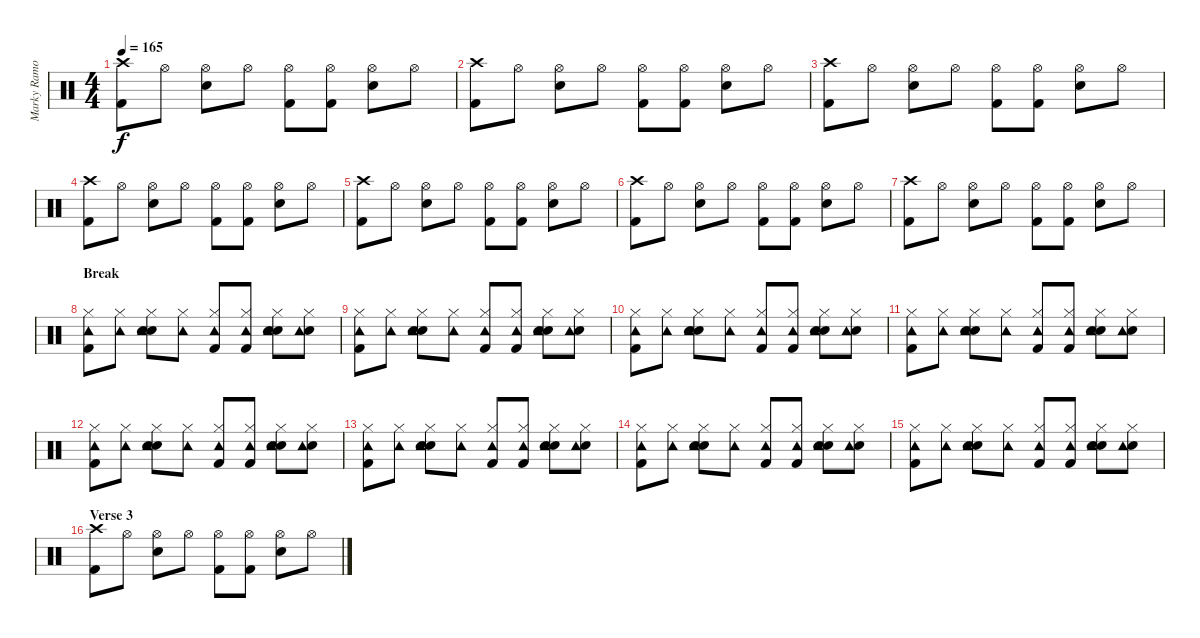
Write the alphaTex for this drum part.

\track ("Marky Ramone" "Marky Ramo") {instrument percussion}
\staff {score}
\articulation defaults
\ts (4 4)
\tempo 165
\clef neutral
\ks c
("Crash high (hit)" "Kick (hit) 2").8{dy f} "Hi-Hat (open)".8 ("Hi-Hat (open)" "Snare (hit) 2").8 "Hi-Hat (open)".8 ("Hi-Hat (open)" "Kick (hit) 2").8 ("Hi-Hat (open)" "Kick (hit) 2").8 ("Hi-Hat (open)" "Snare (hit) 2").8 "Hi-Hat (open)".8 |
("Crash high (hit)" "Kick (hit) 2").8 "Hi-Hat (open)".8 ("Hi-Hat (open)" "Snare (hit) 2").8 "Hi-Hat (open)".8 ("Hi-Hat (open)" "Kick (hit) 2").8 ("Hi-Hat (open)" "Kick (hit) 2").8 ("Hi-Hat (open)" "Snare (hit) 2").8 "Hi-Hat (open)".8 |
("Crash high (hit)" "Kick (hit) 2").8 "Hi-Hat (open)".8 ("Hi-Hat (open)" "Snare (hit) 2").8 "Hi-Hat (open)".8 ("Hi-Hat (open)" "Kick (hit) 2").8 ("Hi-Hat (open)" "Kick (hit) 2").8 ("Hi-Hat (open)" "Snare (hit) 2").8 "Hi-Hat (open)".8 |
("Crash high (hit)" "Kick (hit) 2").8 "Hi-Hat (open)".8 ("Hi-Hat (open)" "Snare (hit) 2").8 "Hi-Hat (open)".8 ("Hi-Hat (open)" "Kick (hit) 2").8 ("Hi-Hat (open)" "Kick (hit) 2").8 ("Hi-Hat (open)" "Snare (hit) 2").8 "Hi-Hat (open)".8 |
("Crash high (hit)" "Kick (hit) 2").8 "Hi-Hat (open)".8 ("Hi-Hat (open)" "Snare (hit) 2").8 "Hi-Hat (open)".8 ("Hi-Hat (open)" "Kick (hit) 2").8 ("Hi-Hat (open)" "Kick (hit) 2").8 ("Hi-Hat (open)" "Snare (hit) 2").8 "Hi-Hat (open)".8 |
("Crash high (hit)" "Kick (hit) 2").8 "Hi-Hat (open)".8 ("Hi-Hat (open)" "Snare (hit) 2").8 "Hi-Hat (open)".8 ("Hi-Hat (open)" "Kick (hit) 2").8 ("Hi-Hat (open)" "Kick (hit) 2").8 ("Hi-Hat (open)" "Snare (hit) 2").8 "Hi-Hat (open)".8 |
("Crash high (hit)" "Kick (hit) 2").8 "Hi-Hat (open)".8 ("Hi-Hat (open)" "Snare (hit) 2").8 "Hi-Hat (open)".8 ("Hi-Hat (open)" "Kick (hit) 2").8 ("Hi-Hat (open)" "Kick (hit) 2").8 ("Hi-Hat (open)" "Snare (hit) 2").8 "Hi-Hat (open)".8 |
\section ("" "Break")
("Hi-Hat (closed)" "Tambourine (hit)" "Kick (hit) 2").8 ("Hi-Hat (closed)" "Tambourine (hit)").8 ("Hi-Hat (closed)" "Hand Clap (hit)" "Tambourine (hit)" "Snare (hit) 2").8 ("Hi-Hat (closed)" "Tambourine (hit)").8 ("Hi-Hat (closed)" "Tambourine (hit)" "Kick (hit) 2").8 ("Hi-Hat (closed)" "Tambourine (hit)" "Kick (hit) 2").8 ("Hi-Hat (closed)" "Hand Clap (hit)" "Tambourine (hit)" "Snare (hit) 2").8 ("Hi-Hat (closed)" "Hand Clap (hit)" "Tambourine (hit)").8 |
("Hi-Hat (closed)" "Tambourine (hit)" "Kick (hit) 2").8 ("Hi-Hat (closed)" "Tambourine (hit)").8 ("Hi-Hat (closed)" "Hand Clap (hit)" "Tambourine (hit)" "Snare (hit) 2").8 ("Hi-Hat (closed)" "Tambourine (hit)").8 ("Hi-Hat (closed)" "Tambourine (hit)" "Kick (hit) 2").8 ("Hi-Hat (closed)" "Tambourine (hit)" "Kick (hit) 2").8 ("Hi-Hat (closed)" "Hand Clap (hit)" "Tambourine (hit)" "Snare (hit) 2").8 ("Hi-Hat (closed)" "Hand Clap (hit)" "Tambourine (hit)").8 |
("Hi-Hat (closed)" "Tambourine (hit)" "Kick (hit) 2").8 ("Hi-Hat (closed)" "Tambourine (hit)").8 ("Hi-Hat (closed)" "Hand Clap (hit)" "Tambourine (hit)" "Snare (hit) 2").8 ("Hi-Hat (closed)" "Tambourine (hit)").8 ("Hi-Hat (closed)" "Tambourine (hit)" "Kick (hit) 2").8 ("Hi-Hat (closed)" "Tambourine (hit)" "Kick (hit) 2").8 ("Hi-Hat (closed)" "Hand Clap (hit)" "Tambourine (hit)" "Snare (hit) 2").8 ("Hi-Hat (closed)" "Hand Clap (hit)" "Tambourine (hit)").8 |
("Hi-Hat (closed)" "Tambourine (hit)" "Kick (hit) 2").8 ("Hi-Hat (closed)" "Tambourine (hit)").8 ("Hi-Hat (closed)" "Hand Clap (hit)" "Tambourine (hit)" "Snare (hit) 2").8 ("Hi-Hat (closed)" "Tambourine (hit)").8 ("Hi-Hat (closed)" "Tambourine (hit)" "Kick (hit) 2").8 ("Hi-Hat (closed)" "Tambourine (hit)" "Kick (hit) 2").8 ("Hi-Hat (closed)" "Hand Clap (hit)" "Tambourine (hit)" "Snare (hit) 2").8 ("Hi-Hat (closed)" "Hand Clap (hit)" "Tambourine (hit)").8 |
("Hi-Hat (closed)" "Tambourine (hit)" "Kick (hit) 2").8 ("Hi-Hat (closed)" "Tambourine (hit)").8 ("Hi-Hat (closed)" "Hand Clap (hit)" "Tambourine (hit)" "Snare (hit) 2").8 ("Hi-Hat (closed)" "Tambourine (hit)").8 ("Hi-Hat (closed)" "Tambourine (hit)" "Kick (hit) 2").8 ("Hi-Hat (closed)" "Tambourine (hit)" "Kick (hit) 2").8 ("Hi-Hat (closed)" "Hand Clap (hit)" "Tambourine (hit)" "Snare (hit) 2").8 ("Hi-Hat (closed)" "Hand Clap (hit)" "Tambourine (hit)").8 |
("Hi-Hat (closed)" "Tambourine (hit)" "Kick (hit) 2").8 ("Hi-Hat (closed)" "Tambourine (hit)").8 ("Hi-Hat (closed)" "Hand Clap (hit)" "Tambourine (hit)" "Snare (hit) 2").8 ("Hi-Hat (closed)" "Tambourine (hit)").8 ("Hi-Hat (closed)" "Tambourine (hit)" "Kick (hit) 2").8 ("Hi-Hat (closed)" "Tambourine (hit)" "Kick (hit) 2").8 ("Hi-Hat (closed)" "Hand Clap (hit)" "Tambourine (hit)" "Snare (hit) 2").8 ("Hi-Hat (closed)" "Hand Clap (hit)" "Tambourine (hit)").8 |
("Hi-Hat (closed)" "Tambourine (hit)" "Kick (hit) 2").8 ("Hi-Hat (closed)" "Tambourine (hit)").8 ("Hi-Hat (closed)" "Hand Clap (hit)" "Tambourine (hit)" "Snare (hit) 2").8 ("Hi-Hat (closed)" "Tambourine (hit)").8 ("Hi-Hat (closed)" "Tambourine (hit)" "Kick (hit) 2").8 ("Hi-Hat (closed)" "Tambourine (hit)" "Kick (hit) 2").8 ("Hi-Hat (closed)" "Hand Clap (hit)" "Tambourine (hit)" "Snare (hit) 2").8 ("Hi-Hat (closed)" "Hand Clap (hit)" "Tambourine (hit)").8 |
("Hi-Hat (closed)" "Tambourine (hit)" "Kick (hit) 2").8 ("Hi-Hat (closed)" "Tambourine (hit)").8 ("Hi-Hat (closed)" "Hand Clap (hit)" "Tambourine (hit)" "Snare (hit) 2").8 ("Hi-Hat (closed)" "Tambourine (hit)").8 ("Hi-Hat (closed)" "Tambourine (hit)" "Kick (hit) 2").8 ("Hi-Hat (closed)" "Tambourine (hit)" "Kick (hit) 2").8 ("Hi-Hat (closed)" "Hand Clap (hit)" "Tambourine (hit)" "Snare (hit) 2").8 ("Hi-Hat (closed)" "Hand Clap (hit)" "Tambourine (hit)").8 |
\section ("" "Verse 3")
("Crash high (hit)" "Kick (hit) 2").8 "Hi-Hat (open)".8 ("Hi-Hat (open)" "Snare (hit) 2").8 "Hi-Hat (open)".8 ("Hi-Hat (open)" "Kick (hit) 2").8 ("Hi-Hat (open)" "Kick (hit) 2").8 ("Hi-Hat (open)" "Snare (hit) 2").8 "Hi-Hat (open)".8
